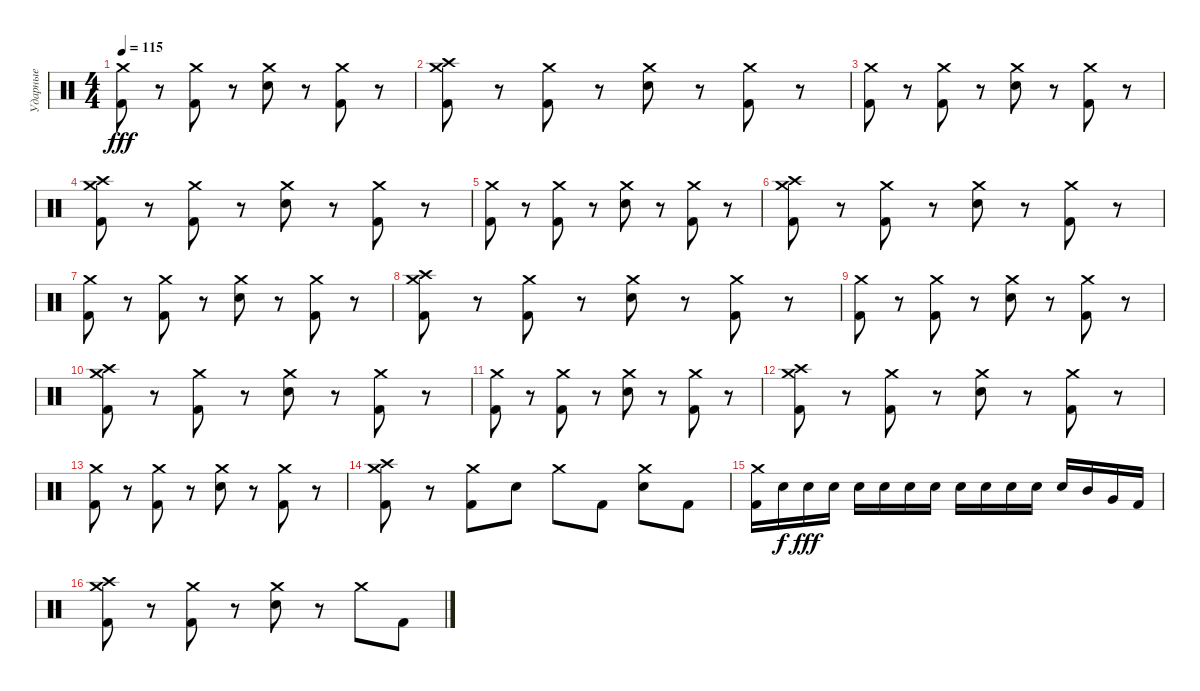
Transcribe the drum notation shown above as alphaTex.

\track ("Ударные" "Ударные") {instrument percussion}
\staff {score}
\articulation defaults
\ts (4 4)
\tempo 115
\clef neutral
\ks c
("Crash medium (hit)" "Kick (hit) 2").8{dy fff} r.8 ("Crash medium (hit)" "Kick (hit) 2").8 r.8 ("Crash medium (hit)" "Snare (hit) 2").8 r.8 ("Crash medium (hit)" "Kick (hit) 2").8 r.8 |
("Crash high (hit)" "Crash medium (hit)" "Kick (hit) 2").8 r.8 ("Crash medium (hit)" "Kick (hit) 2").8 r.8 ("Crash medium (hit)" "Snare (hit) 2").8 r.8 ("Crash medium (hit)" "Kick (hit) 2").8 r.8 |
("Crash medium (hit)" "Kick (hit) 2").8 r.8 ("Crash medium (hit)" "Kick (hit) 2").8 r.8 ("Crash medium (hit)" "Snare (hit) 2").8 r.8 ("Crash medium (hit)" "Kick (hit) 2").8 r.8 |
("Crash high (hit)" "Crash medium (hit)" "Kick (hit) 2").8 r.8 ("Crash medium (hit)" "Kick (hit) 2").8 r.8 ("Crash medium (hit)" "Snare (hit) 2").8 r.8 ("Crash medium (hit)" "Kick (hit) 2").8 r.8 |
("Crash medium (hit)" "Kick (hit) 2").8 r.8 ("Crash medium (hit)" "Kick (hit) 2").8 r.8 ("Crash medium (hit)" "Snare (hit) 2").8 r.8 ("Crash medium (hit)" "Kick (hit) 2").8 r.8 |
("Crash high (hit)" "Crash medium (hit)" "Kick (hit) 2").8 r.8 ("Crash medium (hit)" "Kick (hit) 2").8 r.8 ("Crash medium (hit)" "Snare (hit) 2").8 r.8 ("Crash medium (hit)" "Kick (hit) 2").8 r.8 |
("Crash medium (hit)" "Kick (hit) 2").8 r.8 ("Crash medium (hit)" "Kick (hit) 2").8 r.8 ("Crash medium (hit)" "Snare (hit) 2").8 r.8 ("Crash medium (hit)" "Kick (hit) 2").8 r.8 |
("Crash high (hit)" "Crash medium (hit)" "Kick (hit) 2").8 r.8 ("Crash medium (hit)" "Kick (hit) 2").8 r.8 ("Crash medium (hit)" "Snare (hit) 2").8 r.8 ("Crash medium (hit)" "Kick (hit) 2").8 r.8 |
("Crash medium (hit)" "Kick (hit) 2").8 r.8 ("Crash medium (hit)" "Kick (hit) 2").8 r.8 ("Crash medium (hit)" "Snare (hit) 2").8 r.8 ("Crash medium (hit)" "Kick (hit) 2").8 r.8 |
("Crash high (hit)" "Crash medium (hit)" "Kick (hit) 2").8 r.8 ("Crash medium (hit)" "Kick (hit) 2").8 r.8 ("Crash medium (hit)" "Snare (hit) 2").8 r.8 ("Crash medium (hit)" "Kick (hit) 2").8 r.8 |
("Crash medium (hit)" "Kick (hit) 2").8 r.8 ("Crash medium (hit)" "Kick (hit) 2").8 r.8 ("Crash medium (hit)" "Snare (hit) 2").8 r.8 ("Crash medium (hit)" "Kick (hit) 2").8 r.8 |
("Crash high (hit)" "Crash medium (hit)" "Kick (hit) 2").8 r.8 ("Crash medium (hit)" "Kick (hit) 2").8 r.8 ("Crash medium (hit)" "Snare (hit) 2").8 r.8 ("Crash medium (hit)" "Kick (hit) 2").8 r.8 |
("Crash medium (hit)" "Kick (hit) 2").8 r.8 ("Crash medium (hit)" "Kick (hit) 2").8 r.8 ("Crash medium (hit)" "Snare (hit) 2").8 r.8 ("Crash medium (hit)" "Kick (hit) 2").8 r.8 |
("Crash high (hit)" "Crash medium (hit)" "Kick (hit) 2").8 r.8 ("Crash medium (hit)" "Kick (hit) 2").8 "Snare (hit) 2".8 "Crash medium (hit)".8 "Kick (hit) 2".8 ("Crash medium (hit)" "Snare (hit) 2").8 "Kick (hit) 2".8 |
("Crash medium (hit)" "Kick (hit) 2").16 "Snare (hit) 2".16{dy f} "Snare (hit) 2".16{dy fff} "Snare (hit) 2".16 "Snare (hit) 2".16 "Snare (hit) 2".16 "Snare (hit) 2".16 "Snare (hit) 2".16 "Snare (hit) 2".16 "Snare (hit) 2".16 "Snare (hit) 2".16 "Snare (hit) 2".16 "Snare (hit) 2".16 "Mid Tom (hit)".16 "Very Low Tom (hit)".16 "Kick (hit) 2".16 |
("Crash high (hit)" "Crash medium (hit)" "Kick (hit) 2").8 r.8 ("Crash medium (hit)" "Kick (hit) 2").8 r.8 ("Crash medium (hit)" "Snare (hit) 2").8 r.8 "Crash medium (hit)".8 "Kick (hit) 2".8
